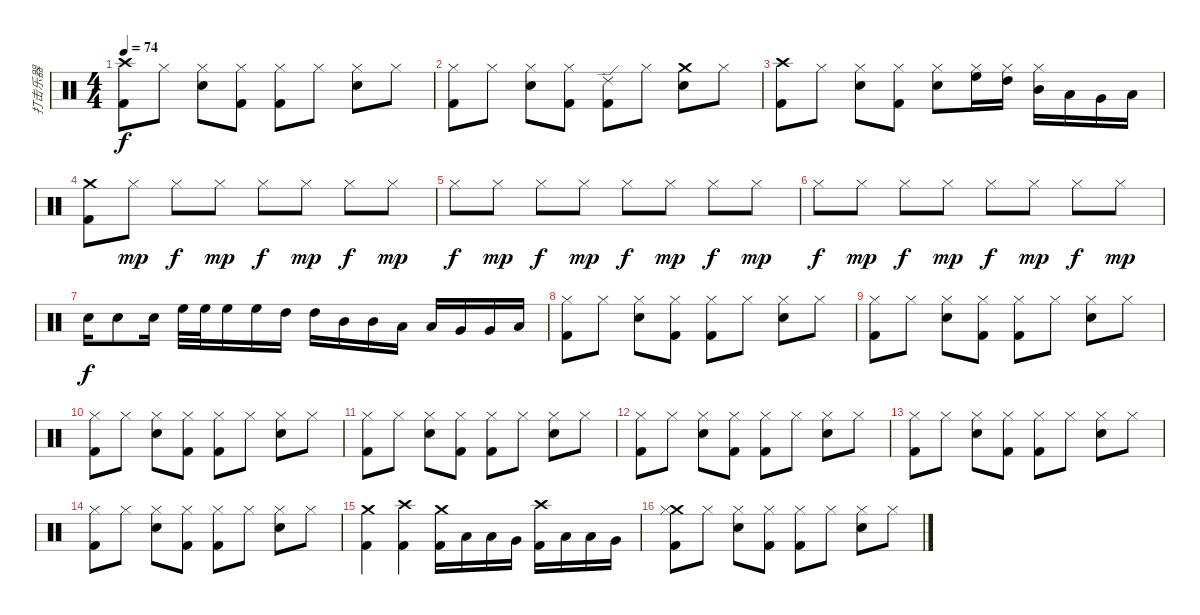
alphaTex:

\track ("打击乐器" "打击乐器") {instrument percussion}
\staff {score}
\articulation defaults
\ts (4 4)
\tempo 74
\clef neutral
\ks c
("Crash high (hit)" "Kick (hit) 2").8{dy f} "Hi-Hat (closed)".8 ("Electric Snare (hit)" "Hi-Hat (closed)").8 ("Kick (hit) 2" "Hi-Hat (closed)").8 ("Kick (hit) 2" "Hi-Hat (closed)").8 "Hi-Hat (closed)".8 ("Electric Snare (hit)" "Hi-Hat (closed)").8 "Hi-Hat (closed)".8 |
("Hi-Hat (closed)" "Kick (hit) 2").8 "Hi-Hat (closed)".8 ("Electric Snare (hit)" "Hi-Hat (closed)").8 ("Kick (hit) 2" "Hi-Hat (closed)").8 ("Kick (hit) 2" "Ride (edge) 2").8 "Hi-Hat (closed)".8 ("Electric Snare (hit)" "Crash medium (hit)").8 "Hi-Hat (closed)".8 |
("Crash high (hit)" "Kick (hit) 2").8 "Hi-Hat (closed)".8 ("Electric Snare (hit)" "Hi-Hat (closed)").8 ("Kick (hit) 2" "Hi-Hat (closed)").8 ("Electric Snare (hit)" "Hi-Hat (closed)").8 ("High Floor Tom (hit)" "Hi-Hat (closed)").16 ("High Tom (hit)" "Hi-Hat (closed)").16 ("Mid Tom (hit)" "Hi-Hat (closed)").16 "Low Tom (hit)".16 "Very Low Tom (hit)".16 "Low Floor Tom (hit)".16 |
("Crash medium (hit)" "Kick (hit) 2").8 "Hi-Hat (closed)".8{dy mp} "Hi-Hat (closed)".8{dy f} "Hi-Hat (closed)".8{dy mp} "Hi-Hat (closed)".8{dy f} "Hi-Hat (closed)".8{dy mp} "Hi-Hat (closed)".8{dy f} "Hi-Hat (closed)".8{dy mp} |
"Hi-Hat (closed)".8{dy f} "Hi-Hat (closed)".8{dy mp} "Hi-Hat (closed)".8{dy f} "Hi-Hat (closed)".8{dy mp} "Hi-Hat (closed)".8{dy f} "Hi-Hat (closed)".8{dy mp} "Hi-Hat (closed)".8{dy f} "Hi-Hat (closed)".8{dy mp} |
"Hi-Hat (closed)".8{dy f} "Hi-Hat (closed)".8{dy mp} "Hi-Hat (closed)".8{dy f} "Hi-Hat (closed)".8{dy mp} "Hi-Hat (closed)".8{dy f} "Hi-Hat (closed)".8{dy mp} "Hi-Hat (closed)".8{dy f} "Hi-Hat (closed)".8{dy mp} |
"Electric Snare (hit)".16{dy f} "Electric Snare (hit)".8 "Electric Snare (hit)".16 "High Floor Tom (hit)".32 "High Floor Tom (hit)".32 "High Floor Tom (hit)".16 "High Floor Tom (hit)".16 "High Tom (hit)".16 "High Tom (hit)".16 "Mid Tom (hit)".16 "Mid Tom (hit)".16 "Low Tom (hit)".16 "Low Tom (hit)".16 "Very Low Tom (hit)".16 "Very Low Tom (hit)".16 "Low Floor Tom (hit)".16 |
("Hi-Hat (closed)" "Kick (hit) 2").8 "Hi-Hat (closed)".8 ("Electric Snare (hit)" "Hi-Hat (closed)").8 ("Kick (hit) 2" "Hi-Hat (closed)").8 ("Kick (hit) 2" "Hi-Hat (closed)").8 "Hi-Hat (closed)".8 ("Electric Snare (hit)" "Hi-Hat (closed)").8 "Hi-Hat (closed)".8 |
("Hi-Hat (closed)" "Kick (hit) 2").8 "Hi-Hat (closed)".8 ("Electric Snare (hit)" "Hi-Hat (closed)").8 ("Kick (hit) 2" "Hi-Hat (closed)").8 ("Kick (hit) 2" "Hi-Hat (closed)").8 "Hi-Hat (closed)".8 ("Electric Snare (hit)" "Hi-Hat (closed)").8 "Hi-Hat (closed)".8 |
("Hi-Hat (closed)" "Kick (hit) 2").8 "Hi-Hat (closed)".8 ("Electric Snare (hit)" "Hi-Hat (closed)").8 ("Kick (hit) 2" "Hi-Hat (closed)").8 ("Kick (hit) 2" "Hi-Hat (closed)").8 "Hi-Hat (closed)".8 ("Electric Snare (hit)" "Hi-Hat (closed)").8 "Hi-Hat (closed)".8 |
("Hi-Hat (closed)" "Kick (hit) 2").8 "Hi-Hat (closed)".8 ("Electric Snare (hit)" "Hi-Hat (closed)").8 ("Kick (hit) 2" "Hi-Hat (closed)").8 ("Kick (hit) 2" "Hi-Hat (closed)").8 "Hi-Hat (closed)".8 ("Electric Snare (hit)" "Hi-Hat (closed)").8 "Hi-Hat (closed)".8 |
("Hi-Hat (closed)" "Kick (hit) 2").8 "Hi-Hat (closed)".8 ("Electric Snare (hit)" "Hi-Hat (closed)").8 ("Kick (hit) 2" "Hi-Hat (closed)").8 ("Kick (hit) 2" "Hi-Hat (closed)").8 "Hi-Hat (closed)".8 ("Electric Snare (hit)" "Hi-Hat (closed)").8 "Hi-Hat (closed)".8 |
("Hi-Hat (closed)" "Kick (hit) 2").8 "Hi-Hat (closed)".8 ("Electric Snare (hit)" "Hi-Hat (closed)").8 ("Kick (hit) 2" "Hi-Hat (closed)").8 ("Kick (hit) 2" "Hi-Hat (closed)").8 "Hi-Hat (closed)".8 ("Electric Snare (hit)" "Hi-Hat (closed)").8 "Hi-Hat (closed)".8 |
("Hi-Hat (closed)" "Kick (hit) 2").8 "Hi-Hat (closed)".8 ("Electric Snare (hit)" "Hi-Hat (closed)").8 ("Kick (hit) 2" "Hi-Hat (closed)").8 ("Kick (hit) 2" "Hi-Hat (closed)").8 "Hi-Hat (closed)".8 ("Electric Snare (hit)" "Hi-Hat (closed)").8 "Hi-Hat (closed)".8 |
("Crash medium (hit)" "Kick (hit) 2").4 ("Crash high (hit)" "Kick (hit) 2").4 ("Crash medium (hit)" "Kick (hit) 2").16 "Low Tom (hit)".16 "Low Tom (hit)".16 "Very Low Tom (hit)".16 ("Crash high (hit)" "Kick (hit) 2").16 "Low Tom (hit)".16 "Low Tom (hit)".16 "Very Low Tom (hit)".16 |
("Crash medium (hit)" "Hi-Hat (closed)" "Kick (hit) 2").8 "Hi-Hat (closed)".8 ("Electric Snare (hit)" "Hi-Hat (closed)").8 ("Kick (hit) 2" "Hi-Hat (closed)").8 ("Kick (hit) 2" "Hi-Hat (closed)").8 "Hi-Hat (closed)".8 ("Electric Snare (hit)" "Hi-Hat (closed)").8 "Hi-Hat (closed)".8
